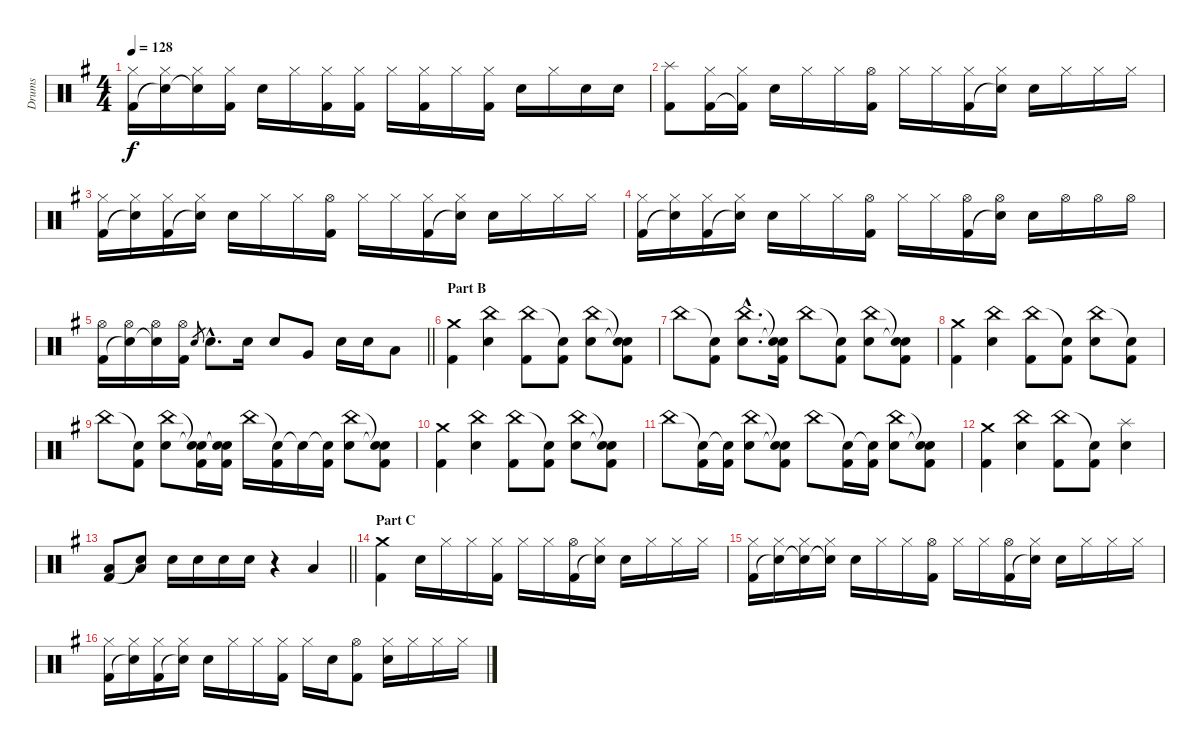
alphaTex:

\track ("Drums" "Drums") {instrument percussion}
\staff {score}
\articulation defaults
\ts (4 4)
\tempo 128
\clef neutral
\ks g
("Hi-Hat (closed)" "Kick (hit) 2").16{dy f} ("Hi-Hat (closed)" "Snare (hit)"{t}).16 ("Hi-Hat (closed)" "Snare (hit)"{t}).16 ("Hi-Hat (closed)" "Kick (hit) 2").16 "Electric Snare (hit)".16 "Hi-Hat (closed)".16 ("Hi-Hat (closed)" "Kick (hit) 2").16 ("Hi-Hat (closed)" "Kick (hit) 2").16 "Hi-Hat (closed)".16 ("Hi-Hat (closed)" "Kick (hit) 2").16 "Hi-Hat (closed)".16 ("Hi-Hat (closed)" "Kick (hit) 2").16 "Electric Snare (hit)".16 "Hi-Hat (closed)".16 "Electric Snare (hit)".16 "Electric Snare (hit)".16 |
("Splash (hit)" "Kick (hit) 2").8 ("Hi-Hat (closed)" "Kick (hit) 2").16 ("Hi-Hat (closed)" "Kick (hit) 2"{t}).16 "Electric Snare (hit)".16 "Hi-Hat (closed)".16 "Hi-Hat (closed)".16 ("Hi-Hat (open)" "Kick (hit) 2").16 "Hi-Hat (closed)".16 "Hi-Hat (closed)".16 ("Hi-Hat (closed)" "Kick (hit) 2").16 ("Hi-Hat (closed)" "Snare (hit)"{t}).16 "Electric Snare (hit)".16 "Hi-Hat (closed)".16 "Hi-Hat (closed)".16 "Hi-Hat (closed)".16 |
("Hi-Hat (closed)" "Kick (hit) 2").16 ("Hi-Hat (closed)" "Snare (hit)"{t}).16 ("Hi-Hat (closed)" "Kick (hit) 2").16 ("Hi-Hat (closed)" "Snare (hit)"{t}).16 "Electric Snare (hit)".16 "Hi-Hat (closed)".16 "Hi-Hat (closed)".16 ("Hi-Hat (open)" "Kick (hit) 2").16 "Hi-Hat (closed)".16 "Hi-Hat (closed)".16 ("Hi-Hat (closed)" "Kick (hit) 2").16 ("Hi-Hat (closed)" "Snare (hit)"{t}).16 "Electric Snare (hit)".16 "Hi-Hat (closed)".16 "Hi-Hat (closed)".16 "Hi-Hat (closed)".16 |
("Hi-Hat (closed)" "Kick (hit) 2").16 ("Hi-Hat (closed)" "Snare (hit)"{t}).16 ("Hi-Hat (closed)" "Kick (hit) 2").16 ("Hi-Hat (closed)" "Snare (hit)"{t}).16 "Electric Snare (hit)".16 "Hi-Hat (closed)".16 "Hi-Hat (closed)".16 ("Hi-Hat (open)" "Kick (hit) 2").16 "Hi-Hat (closed)".16 "Hi-Hat (closed)".16 ("Hi-Hat (open)" "Kick (hit) 2").16 ("Hi-Hat (open)" "Snare (hit)"{t}).16 "Electric Snare (hit)".16 "Hi-Hat (open)".16 "Hi-Hat (open)".16 "Hi-Hat (open)".16 |
\barLineRight lightlight
("Hi-Hat (open)" "Kick (hit) 2").16 ("Hi-Hat (open)" "Snare (hit)"{t}).16 ("Hi-Hat (open)" "Snare (hit)"{t}).16 ("Hi-Hat (open)" "Kick (hit) 2").16 "Electric Snare (hit)".8{gr} "Electric Snare (hit)"{hac}.8{d} "Electric Snare (hit)".16 "Electric Snare (hit)".8 "Very Low Tom (hit)".8 "Electric Snare (hit)".16 "Electric Snare (hit)".16 "Low Floor Tom (hit)".8 |
\section ("" "Part B")
("Crash medium (hit)" "Kick (hit) 2").4 ("China (hit)" "Electric Snare (hit)").4 ("China (hit)" "Kick (hit) 2").8 ("Snare (hit)"{t} "Kick (hit) 2").8 ("China (hit)" "Electric Snare (hit)").8 ("Snare (hit)"{t} "Snare (hit)"{t} "Kick (hit) 2").8 |
"China (hit)".8 ("Snare (hit)"{t} "Kick (hit) 2").8 ("China (hit)"{hac} "Electric Snare (hit)"{hac}).8{d} ("Snare (hit)"{t} "Snare (hit)"{t} "Kick (hit) 2").16 "China (hit)".8 ("Snare (hit)"{t} "Kick (hit) 2").8 ("China (hit)" "Electric Snare (hit)").8 ("Snare (hit)"{t} "Snare (hit)"{t} "Kick (hit) 2").8 |
("Crash medium (hit)" "Kick (hit) 2").4 ("China (hit)" "Electric Snare (hit)").4 ("China (hit)" "Kick (hit) 2").8 ("Snare (hit)"{t} "Kick (hit) 2").8 ("China (hit)" "Electric Snare (hit)").8 ("Snare (hit)"{t} "Kick (hit) 2").8 |
"China (hit)".8 ("Snare (hit)"{t} "Kick (hit) 2").8 ("China (hit)" "Electric Snare (hit)").8 ("Snare (hit)"{t} "Snare (hit)"{t} "Kick (hit) 2").16 ("Snare (hit)"{t} "Snare (hit)"{t} "Kick (hit) 2").16 "China (hit)".16 ("Snare (hit)"{t} "Kick (hit) 2").16 "Snare (hit)"{t}.16 ("Snare (hit)"{t} "Kick (hit) 2").16 ("China (hit)" "Electric Snare (hit)").8 ("Snare (hit)"{t} "Snare (hit)"{t} "Kick (hit) 2").8 |
("Crash medium (hit)" "Kick (hit) 2").4 ("China (hit)" "Electric Snare (hit)").4 ("China (hit)" "Kick (hit) 2").8 ("Snare (hit)"{t} "Kick (hit) 2").8 ("China (hit)" "Electric Snare (hit)").8 ("Snare (hit)"{t} "Snare (hit)"{t} "Kick (hit) 2").8 |
"China (hit)".8 ("Snare (hit)"{t} "Kick (hit) 2").16 ("Snare (hit)"{t} "Kick (hit) 2").16 ("China (hit)" "Electric Snare (hit)").8 ("Snare (hit)"{t} "Snare (hit)"{t} "Kick (hit) 2").8 "China (hit)".8 ("Snare (hit)"{t} "Kick (hit) 2").16 ("Snare (hit)"{t} "Kick (hit) 2").16 ("China (hit)" "Electric Snare (hit)").8 ("Snare (hit)"{t} "Snare (hit)"{t} "Kick (hit) 2").8 |
("Crash medium (hit)" "Kick (hit) 2").4 ("China (hit)" "Electric Snare (hit)").4 ("China (hit)" "Kick (hit) 2").8 ("Snare (hit)"{t} "Kick (hit) 2").8 ("Splash (hit)" "Electric Snare (hit)").4 |
\barLineRight lightlight
("Low Floor Tom (hit)" "Kick (hit) 2").8 ("Low Floor Tom (hit)" "Snare (hit)"{t}).8 "Electric Snare (hit)".16 "Electric Snare (hit)".16 "Electric Snare (hit)".16 "Electric Snare (hit)".16 r.4 "Low Floor Tom (hit)".4 |
\section ("" "Part C")
("Crash medium (hit)" "Kick (hit) 2").4 "Electric Snare (hit)".16 "Hi-Hat (closed)".16 "Hi-Hat (closed)".16 ("Hi-Hat (closed)" "Kick (hit) 2").16 "Hi-Hat (closed)".16 "Hi-Hat (closed)".16 ("Hi-Hat (open)" "Kick (hit) 2").16 ("Hi-Hat (closed)" "Snare (hit)"{t}).16 "Electric Snare (hit)".16 "Hi-Hat (closed)".16 "Hi-Hat (closed)".16 "Hi-Hat (closed)".16 |
("Hi-Hat (closed)" "Kick (hit) 2").16 ("Hi-Hat (closed)" "Snare (hit)"{t}).16 ("Hi-Hat (closed)" "Snare (hit)"{t}).16 ("Hi-Hat (closed)" "Snare (hit)"{t}).16 "Electric Snare (hit)".16 "Hi-Hat (closed)".16 "Hi-Hat (closed)".16 ("Hi-Hat (open)" "Kick (hit) 2").16 "Hi-Hat (closed)".16 "Hi-Hat (closed)".16 ("Hi-Hat (open)" "Kick (hit) 2").16 ("Hi-Hat (closed)" "Snare (hit)"{t}).16 "Electric Snare (hit)".16 "Hi-Hat (closed)".16 "Hi-Hat (closed)".16 "Hi-Hat (closed)".16 |
("Hi-Hat (closed)" "Kick (hit) 2").16 ("Hi-Hat (closed)" "Snare (hit)"{t}).16 ("Hi-Hat (closed)" "Kick (hit) 2").16 ("Hi-Hat (closed)" "Snare (hit)"{t}).16 "Electric Snare (hit)".16 "Hi-Hat (closed)".16 "Hi-Hat (closed)".16 ("Hi-Hat (closed)" "Kick (hit) 2").16 "Hi-Hat (closed)".16 "Electric Snare (hit)".16 ("Hi-Hat (open)" "Kick (hit) 2").8 ("Hi-Hat (closed)" "Electric Snare (hit)").16 "Hi-Hat (closed)".16 "Hi-Hat (closed)".16 "Hi-Hat (closed)".16
